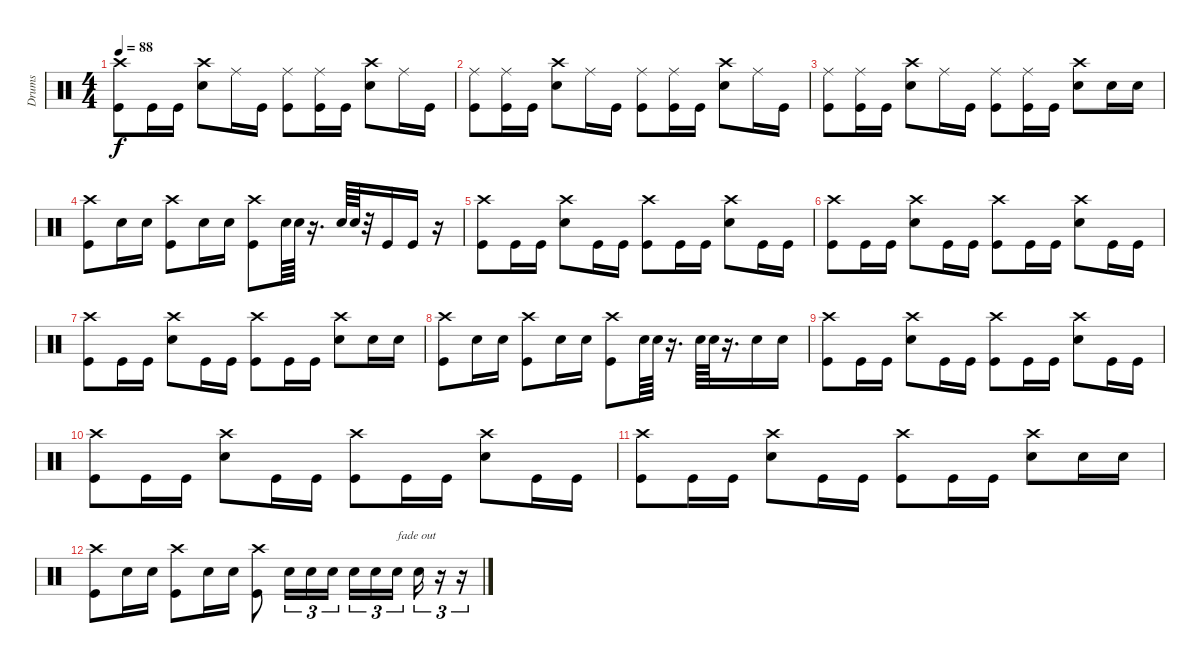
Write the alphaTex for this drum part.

\track ("Drums" "Drums") {instrument percussion}
\staff {score}
\articulation defaults
\ts (4 4)
\tempo 88
\clef neutral
\ks c
("Crash high (hit)" "Kick (hit)").8{dy f} "Kick (hit)".16 "Kick (hit)".16 ("Crash high (hit)" "Snare (hit) 2").8 "Ride (middle)".16 "Kick (hit)".16 ("Ride (middle)" "Kick (hit)").8 ("Ride (middle)" "Kick (hit)").16 "Kick (hit)".16 ("Crash high (hit)" "Snare (hit) 2").8 "Ride (middle)".16 "Kick (hit)".16 |
("Ride (middle)" "Kick (hit)").8 ("Ride (middle)" "Kick (hit)").16 "Kick (hit)".16 ("Crash high (hit)" "Snare (hit) 2").8 "Ride (middle)".16 "Kick (hit)".16 ("Ride (middle)" "Kick (hit)").8 ("Ride (middle)" "Kick (hit)").16 "Kick (hit)".16 ("Crash high (hit)" "Snare (hit) 2").8 "Ride (middle)".16 "Kick (hit)".16 |
("Ride (middle)" "Kick (hit)").8 ("Ride (middle)" "Kick (hit)").16 "Kick (hit)".16 ("Crash high (hit)" "Snare (hit) 2").8 "Ride (middle)".16 "Kick (hit)".16 ("Ride (middle)" "Kick (hit)").8 ("Ride (middle)" "Kick (hit)").16 "Kick (hit)".16 ("Crash high (hit)" "Snare (hit) 2").8 "Snare (hit) 2".16 "Snare (hit) 2".16 |
("Crash high (hit)" "Kick (hit)").8 "Snare (hit) 2".16 "Snare (hit) 2".16 ("Crash high (hit)" "Kick (hit)").8 "Snare (hit) 2".16 "Snare (hit) 2".16 ("Crash high (hit)" "Kick (hit)").8 "Snare (hit) 2".64 "Snare (hit) 2".64 r.16{d} "Snare (hit) 2".64 "Snare (hit) 2".64 r.32 "Kick (hit)".16 "Kick (hit)".16 r.16 |
("Crash high (hit)" "Kick (hit)").8 "Kick (hit)".16 "Kick (hit)".16 ("Crash high (hit)" "Snare (hit) 2").8 "Kick (hit)".16 "Kick (hit)".16 ("Crash high (hit)" "Kick (hit)").8 "Kick (hit)".16 "Kick (hit)".16 ("Crash high (hit)" "Snare (hit) 2").8 "Kick (hit)".16 "Kick (hit)".16 |
("Crash high (hit)" "Kick (hit)").8 "Kick (hit)".16 "Kick (hit)".16 ("Crash high (hit)" "Snare (hit) 2").8 "Kick (hit)".16 "Kick (hit)".16 ("Crash high (hit)" "Kick (hit)").8 "Kick (hit)".16 "Kick (hit)".16 ("Crash high (hit)" "Snare (hit) 2").8 "Kick (hit)".16 "Kick (hit)".16 |
("Crash high (hit)" "Kick (hit)").8 "Kick (hit)".16 "Kick (hit)".16 ("Crash high (hit)" "Snare (hit) 2").8 "Kick (hit)".16 "Kick (hit)".16 ("Crash high (hit)" "Kick (hit)").8 "Kick (hit)".16 "Kick (hit)".16 ("Crash high (hit)" "Snare (hit) 2").8 "Snare (hit) 2".16 "Snare (hit) 2".16 |
("Crash high (hit)" "Kick (hit)").8 "Snare (hit) 2".16 "Snare (hit) 2".16 ("Crash high (hit)" "Kick (hit)").8 "Snare (hit) 2".16 "Snare (hit) 2".16 ("Crash high (hit)" "Kick (hit)").8 "Snare (hit) 2".64 "Snare (hit) 2".64 r.16{d} "Snare (hit) 2".64 "Snare (hit) 2".64 r.16{d} "Snare (hit) 2".16 "Snare (hit) 2".16 |
("Crash high (hit)" "Kick (hit)").8 "Kick (hit)".16 "Kick (hit)".16 ("Crash high (hit)" "Snare (hit) 2").8 "Kick (hit)".16 "Kick (hit)".16 ("Crash high (hit)" "Kick (hit)").8 "Kick (hit)".16 "Kick (hit)".16 ("Crash high (hit)" "Snare (hit) 2").8 "Kick (hit)".16 "Kick (hit)".16 |
("Crash high (hit)" "Kick (hit)").8 "Kick (hit)".16 "Kick (hit)".16 ("Crash high (hit)" "Snare (hit) 2").8 "Kick (hit)".16 "Kick (hit)".16 ("Crash high (hit)" "Kick (hit)").8 "Kick (hit)".16 "Kick (hit)".16 ("Crash high (hit)" "Snare (hit) 2").8 "Kick (hit)".16 "Kick (hit)".16 |
("Crash high (hit)" "Kick (hit)").8 "Kick (hit)".16 "Kick (hit)".16 ("Crash high (hit)" "Snare (hit) 2").8 "Kick (hit)".16 "Kick (hit)".16 ("Crash high (hit)" "Kick (hit)").8 "Kick (hit)".16 "Kick (hit)".16 ("Crash high (hit)" "Snare (hit) 2").8 "Snare (hit) 2".16 "Snare (hit) 2".16 |
("Crash high (hit)" "Kick (hit)").8 "Snare (hit) 2".16 "Snare (hit) 2".16 ("Crash high (hit)" "Kick (hit)").8 "Snare (hit) 2".16 "Snare (hit) 2".16 ("Crash high (hit)" "Kick (hit)").8 "Snare (hit) 2".16{tu (3 2)} "Snare (hit) 2".16{tu (3 2)} "Snare (hit) 2".16{tu (3 2)} "Snare (hit) 2".16{tu (3 2)} "Snare (hit) 2".16{tu (3 2)} "Snare (hit) 2".16{tu (3 2) txt "fade out"} "Snare (hit) 2".16{tu (3 2)} r.16{tu (3 2)} r.16{tu (3 2)}
